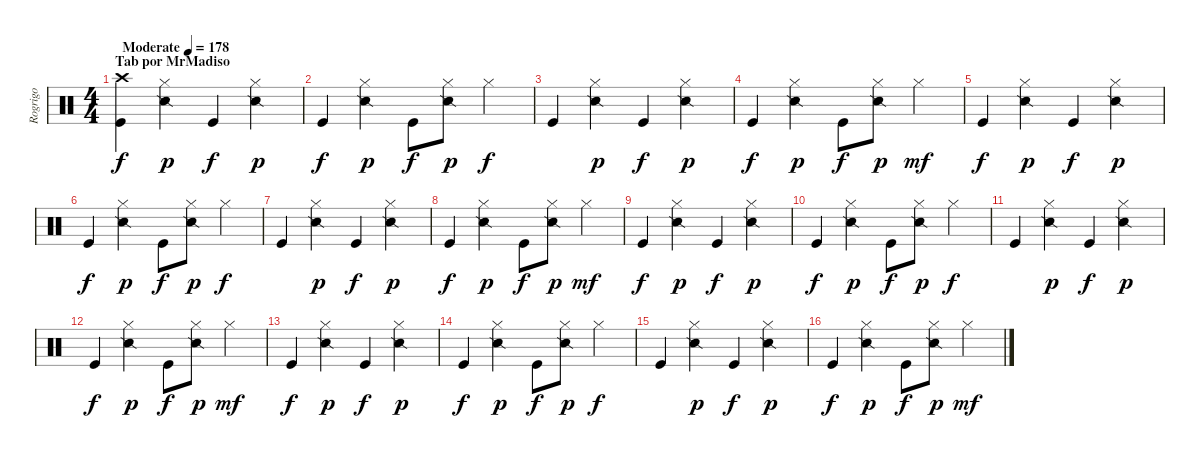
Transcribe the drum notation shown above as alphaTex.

\track ("Rogrigo" "Rogrigo") {instrument percussion}
\staff {score}
\articulation defaults
\ts (4 4)
\section ("" "Tab por MrMadiso")
\tempo (178 "Moderate")
\clef neutral
\ks c
("Crash high (hit)" "Kick (hit)").4{dy f} ("Hi-Hat (closed)" "Snare (side stick) 2").4{dy p} "Kick (hit)".4{dy f} ("Hi-Hat (closed)" "Snare (side stick) 2").4{dy p} |
"Kick (hit)".4{dy f} ("Hi-Hat (closed)" "Snare (side stick) 2").4{dy p} "Kick (hit)".8{dy f} ("Hi-Hat (closed)" "Snare (side stick) 2").8{dy p} "Hi-Hat (closed)".4{dy f} |
"Kick (hit)".4 ("Hi-Hat (closed)" "Snare (side stick) 2").4{dy p} "Kick (hit)".4{dy f} ("Hi-Hat (closed)" "Snare (side stick) 2").4{dy p} |
"Kick (hit)".4{dy f} ("Hi-Hat (closed)" "Snare (side stick) 2").4{dy p} "Kick (hit)".8{dy f} ("Hi-Hat (closed)" "Snare (side stick) 2").8{dy p} "Hi-Hat (closed)".4{dy mf} |
"Kick (hit)".4{dy f} ("Hi-Hat (closed)" "Snare (side stick) 2").4{dy p} "Kick (hit)".4{dy f} ("Hi-Hat (closed)" "Snare (side stick) 2").4{dy p} |
"Kick (hit)".4{dy f} ("Hi-Hat (closed)" "Snare (side stick) 2").4{dy p} "Kick (hit)".8{dy f} ("Hi-Hat (closed)" "Snare (side stick) 2").8{dy p} "Hi-Hat (closed)".4{dy f} |
"Kick (hit)".4 ("Hi-Hat (closed)" "Snare (side stick) 2").4{dy p} "Kick (hit)".4{dy f} ("Hi-Hat (closed)" "Snare (side stick) 2").4{dy p} |
"Kick (hit)".4{dy f} ("Hi-Hat (closed)" "Snare (side stick) 2").4{dy p} "Kick (hit)".8{dy f} ("Hi-Hat (closed)" "Snare (side stick) 2").8{dy p} "Hi-Hat (closed)".4{dy mf} |
"Kick (hit)".4{dy f} ("Hi-Hat (closed)" "Snare (side stick) 2").4{dy p} "Kick (hit)".4{dy f} ("Hi-Hat (closed)" "Snare (side stick) 2").4{dy p} |
"Kick (hit)".4{dy f} ("Hi-Hat (closed)" "Snare (side stick) 2").4{dy p} "Kick (hit)".8{dy f} ("Hi-Hat (closed)" "Snare (side stick) 2").8{dy p} "Hi-Hat (closed)".4{dy f} |
"Kick (hit)".4 ("Hi-Hat (closed)" "Snare (side stick) 2").4{dy p} "Kick (hit)".4{dy f} ("Hi-Hat (closed)" "Snare (side stick) 2").4{dy p} |
"Kick (hit)".4{dy f} ("Hi-Hat (closed)" "Snare (side stick) 2").4{dy p} "Kick (hit)".8{dy f} ("Hi-Hat (closed)" "Snare (side stick) 2").8{dy p} "Hi-Hat (closed)".4{dy mf} |
"Kick (hit)".4{dy f} ("Hi-Hat (closed)" "Snare (side stick) 2").4{dy p} "Kick (hit)".4{dy f} ("Hi-Hat (closed)" "Snare (side stick) 2").4{dy p} |
"Kick (hit)".4{dy f} ("Hi-Hat (closed)" "Snare (side stick) 2").4{dy p} "Kick (hit)".8{dy f} ("Hi-Hat (closed)" "Snare (side stick) 2").8{dy p} "Hi-Hat (closed)".4{dy f} |
"Kick (hit)".4 ("Hi-Hat (closed)" "Snare (side stick) 2").4{dy p} "Kick (hit)".4{dy f} ("Hi-Hat (closed)" "Snare (side stick) 2").4{dy p} |
"Kick (hit)".4{dy f} ("Hi-Hat (closed)" "Snare (side stick) 2").4{dy p} "Kick (hit)".8{dy f} ("Hi-Hat (closed)" "Snare (side stick) 2").8{dy p} "Hi-Hat (closed)".4{dy mf}
